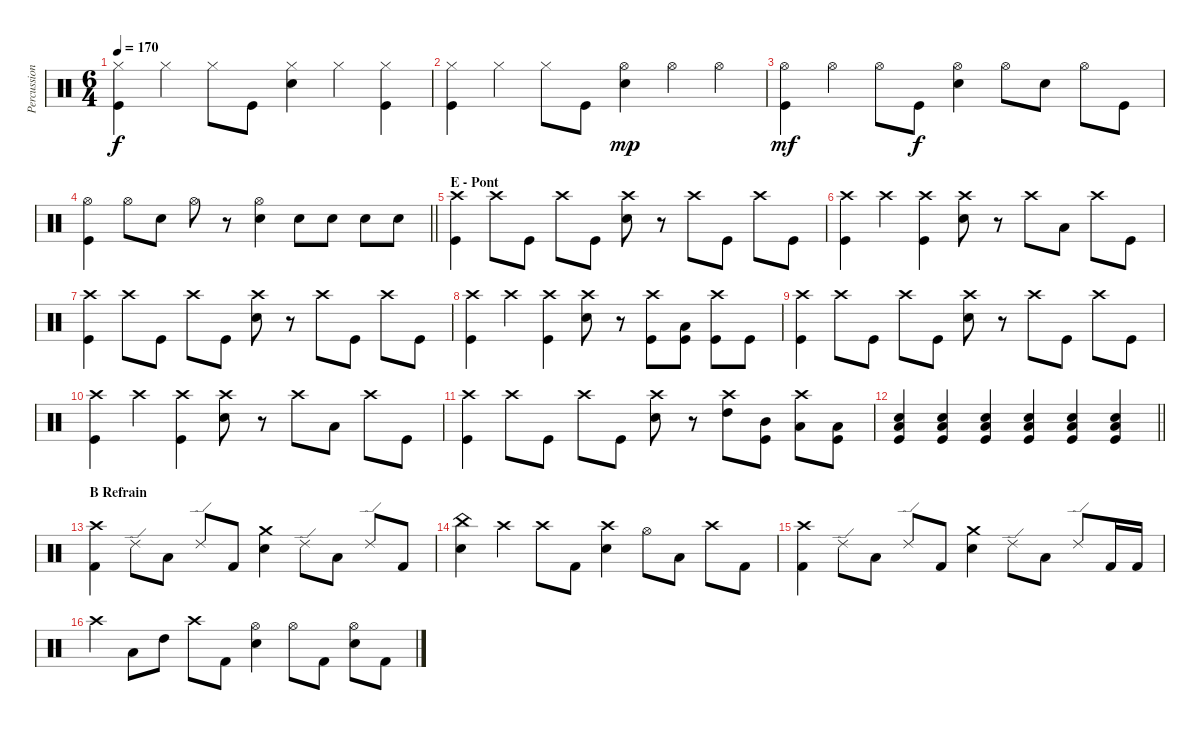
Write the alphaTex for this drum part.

\track ("Percussions" "Percussion") {instrument percussion}
\staff {score}
\articulation defaults
\ts (6 4)
\tempo 170
\clef neutral
\ks c
("Hi-Hat (closed)" "Kick (hit)").4{dy f} "Hi-Hat (closed)".4 "Hi-Hat (closed)".8 "Kick (hit)".8 ("Hi-Hat (closed)" "Snare (hit) 2").4 "Hi-Hat (closed)".4 ("Hi-Hat (closed)" "Kick (hit)").4 |
("Hi-Hat (closed)" "Kick (hit)").4 "Hi-Hat (closed)".4 "Hi-Hat (closed)".8 "Kick (hit)".8 ("Hi-Hat (open)" "Snare (hit) 2").4{dy mp} "Hi-Hat (open)".4 "Hi-Hat (open)".4 |
("Hi-Hat (open)" "Kick (hit)").4{dy mf} "Hi-Hat (open)".4 "Hi-Hat (open)".8 "Kick (hit)".8{dy f} ("Hi-Hat (open)" "Snare (hit) 2").4 "Hi-Hat (open)".8 "Snare (hit) 2".8 "Hi-Hat (open)".8 "Kick (hit)".8 |
\barLineRight lightlight
("Hi-Hat (open)" "Kick (hit)").4 "Hi-Hat (open)".8 "Snare (hit) 2".8 "Hi-Hat (open)".8 r.8 ("Hi-Hat (open)" "Snare (hit) 2").4 "Snare (hit) 2".8 "Snare (hit) 2".8 "Snare (hit) 2".8 "Snare (hit) 2".8 |
\section ("" "E - Pont")
("Crash high (hit)" "Kick (hit)").4 "Crash high (hit)".8 "Kick (hit)".8 "Crash high (hit)".8 "Kick (hit)".8 ("Crash high (hit)" "Snare (hit) 2").8 r.8 "Crash high (hit)".8 "Kick (hit)".8 "Crash high (hit)".8 "Kick (hit)".8 |
("Crash high (hit)" "Kick (hit)").4 "Crash high (hit)".4 ("Crash high (hit)" "Kick (hit)").4 ("Crash high (hit)" "Snare (hit) 2").8 r.8 "Crash high (hit)".8 "Low Tom (hit)".8 "Crash high (hit)".8 "Kick (hit)".8 |
("Crash high (hit)" "Kick (hit)").4 "Crash high (hit)".8 "Kick (hit)".8 "Crash high (hit)".8 "Kick (hit)".8 ("Crash high (hit)" "Snare (hit) 2").8 r.8 "Crash high (hit)".8 "Kick (hit)".8 "Crash high (hit)".8 "Kick (hit)".8 |
("Crash high (hit)" "Kick (hit)").4 "Crash high (hit)".4 ("Crash high (hit)" "Kick (hit)").4 ("Crash high (hit)" "Snare (hit) 2").8 r.8 ("Crash high (hit)" "Kick (hit)").8 ("Low Tom (hit)" "Kick (hit)").8 ("Crash high (hit)" "Kick (hit)").8 "Kick (hit)".8 |
("Crash high (hit)" "Kick (hit)").4 "Crash high (hit)".8 "Kick (hit)".8 "Crash high (hit)".8 "Kick (hit)".8 ("Crash high (hit)" "Snare (hit) 2").8 r.8 "Crash high (hit)".8 "Kick (hit)".8 "Crash high (hit)".8 "Kick (hit)".8 |
("Crash high (hit)" "Kick (hit)").4 "Crash high (hit)".4 ("Crash high (hit)" "Kick (hit)").4 ("Crash high (hit)" "Snare (hit) 2").8 r.8 "Crash high (hit)".8 "Low Tom (hit)".8 "Crash high (hit)".8 "Kick (hit)".8 |
("Crash high (hit)" "Kick (hit)").4 "Crash high (hit)".8 "Kick (hit)".8 "Crash high (hit)".8 "Kick (hit)".8 ("Crash high (hit)" "Snare (hit) 2").8 r.8 ("Crash high (hit)" "High Tom (hit)").8 ("Mid Tom (hit)" "Kick (hit)").8 ("Crash high (hit)" "Low Tom (hit)").8 ("Low Floor Tom (hit)" "Kick (hit)").8 |
\barLineRight lightlight
("Snare (hit) 2" "Low Floor Tom (hit)" "Kick (hit)").4 ("Snare (hit) 2" "Low Floor Tom (hit)" "Kick (hit)").4 ("Snare (hit) 2" "Low Floor Tom (hit)" "Kick (hit)").4 ("Snare (hit) 2" "Low Floor Tom (hit)" "Kick (hit)").4 ("Snare (hit) 2" "Low Floor Tom (hit)" "Kick (hit)").4 ("Snare (hit) 2" "Low Floor Tom (hit)" "Kick (hit)").4 |
\section ("" "B Refrain")
("Crash high (hit)" "Kick (hit) 2").4 "Ride (edge) 2".8 "Low Tom (hit)".8 "Ride (edge) 2".8 "Kick (hit) 2".8 ("Crash medium (hit)" "Snare (hit) 2").4 "Ride (edge) 2".8 "Low Floor Tom (hit)".8 "Ride (edge) 2".8 "Kick (hit) 2".8 |
("China (hit)" "Snare (hit) 2").4 "Crash high (hit)".4 "Crash high (hit)".8 "Kick (hit) 2".8 ("Crash high (hit)" "Snare (hit) 2").4 "Hi-Hat (open)".8 "Low Tom (hit)".8 "Crash high (hit)".8 "Kick (hit) 2".8 |
("Crash high (hit)" "Kick (hit) 2").4 "Ride (edge) 2".8 "Low Tom (hit)".8 "Ride (edge) 2".8 "Kick (hit) 2".8 ("Crash medium (hit)" "Snare (hit) 2").4 "Ride (edge) 2".8 "Low Floor Tom (hit)".8 "Ride (edge) 2".8 "Kick (hit) 2".16 "Kick (hit) 2".16 |
"Crash high (hit)".4 "Low Tom (hit)".8 "High Tom (hit)".8 "Crash high (hit)".8 "Kick (hit) 2".8 ("Hi-Hat (open)" "Snare (hit) 2").4 "Hi-Hat (open)".8 "Kick (hit) 2".8 ("Hi-Hat (open)" "Snare (hit) 2").8 "Kick (hit) 2".8
